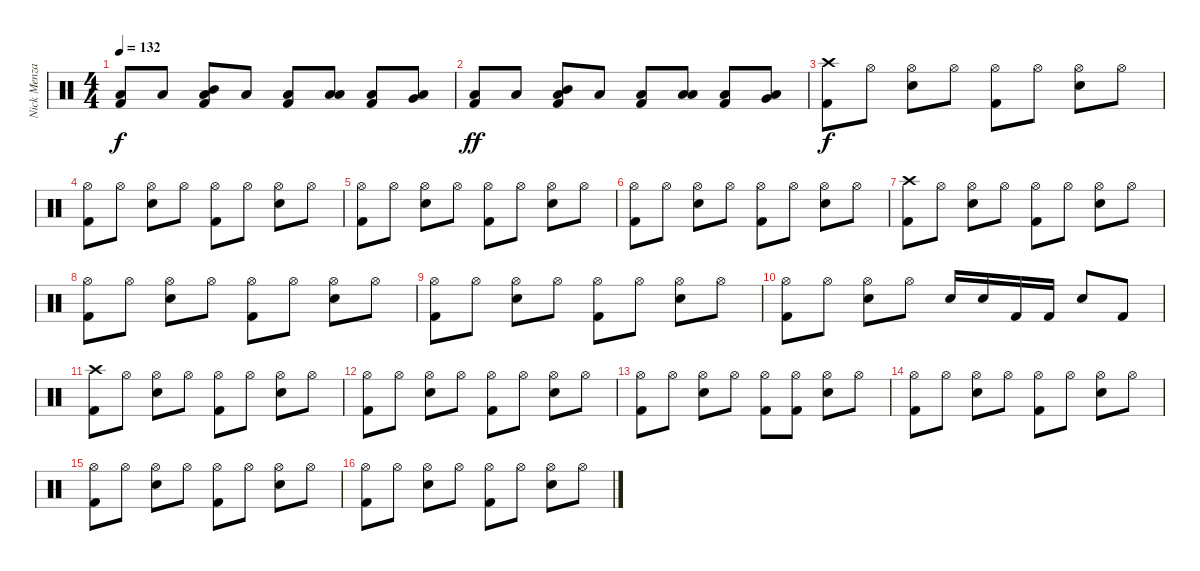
\track ("Nick Menza (Drums)" "Nick Menza") {instrument percussion}
\staff {score}
\articulation defaults
\ts (4 4)
\tempo 132
\clef neutral
\ks c
("Low Floor Tom (hit)" "Kick (hit) 2").8{dy f} "Low Floor Tom (hit)".8 ("Low Floor Tom (hit)" "Mid Tom (hit)" "Kick (hit) 2").8 "Low Floor Tom (hit)".8 ("Low Floor Tom (hit)" "Kick (hit) 2").8 ("Low Floor Tom (hit)" "Low Tom (hit)").8 ("Low Floor Tom (hit)" "Kick (hit) 2").8 ("Low Floor Tom (hit)" "Very Low Tom (hit)").8 |
("Low Floor Tom (hit)" "Kick (hit) 2").8{dy ff} "Low Floor Tom (hit)".8 ("Low Floor Tom (hit)" "Mid Tom (hit)" "Kick (hit) 2").8 "Low Floor Tom (hit)".8 ("Low Floor Tom (hit)" "Kick (hit) 2").8 ("Low Floor Tom (hit)" "Low Tom (hit)").8 ("Low Floor Tom (hit)" "Kick (hit) 2").8 ("Low Floor Tom (hit)" "Very Low Tom (hit)").8 |
("Crash high (hit)" "Kick (hit) 2").8{dy f} "Hi-Hat (open)".8 ("Hi-Hat (open)" "Snare (hit) 2").8 "Hi-Hat (open)".8 ("Hi-Hat (open)" "Kick (hit) 2").8 "Hi-Hat (open)".8 ("Hi-Hat (open)" "Snare (hit) 2").8 "Hi-Hat (open)".8 |
("Hi-Hat (open)" "Kick (hit) 2").8 "Hi-Hat (open)".8 ("Hi-Hat (open)" "Snare (hit) 2").8 "Hi-Hat (open)".8 ("Hi-Hat (open)" "Kick (hit) 2").8 "Hi-Hat (open)".8 ("Hi-Hat (open)" "Snare (hit) 2").8 "Hi-Hat (open)".8 |
("Hi-Hat (open)" "Kick (hit) 2").8 "Hi-Hat (open)".8 ("Hi-Hat (open)" "Snare (hit) 2").8 "Hi-Hat (open)".8 ("Hi-Hat (open)" "Kick (hit) 2").8 "Hi-Hat (open)".8 ("Hi-Hat (open)" "Snare (hit) 2").8 "Hi-Hat (open)".8 |
("Hi-Hat (open)" "Kick (hit) 2").8 "Hi-Hat (open)".8 ("Hi-Hat (open)" "Snare (hit) 2").8 "Hi-Hat (open)".8 ("Hi-Hat (open)" "Kick (hit) 2").8 "Hi-Hat (open)".8 ("Hi-Hat (open)" "Snare (hit) 2").8 "Hi-Hat (open)".8 |
("Crash high (hit)" "Kick (hit) 2").8 "Hi-Hat (open)".8 ("Hi-Hat (open)" "Snare (hit) 2").8 "Hi-Hat (open)".8 ("Hi-Hat (open)" "Kick (hit) 2").8 "Hi-Hat (open)".8 ("Hi-Hat (open)" "Snare (hit) 2").8 "Hi-Hat (open)".8 |
("Hi-Hat (open)" "Kick (hit) 2").8 "Hi-Hat (open)".8 ("Hi-Hat (open)" "Snare (hit) 2").8 "Hi-Hat (open)".8 ("Hi-Hat (open)" "Kick (hit) 2").8 "Hi-Hat (open)".8 ("Hi-Hat (open)" "Snare (hit) 2").8 "Hi-Hat (open)".8 |
("Hi-Hat (open)" "Kick (hit) 2").8 "Hi-Hat (open)".8 ("Hi-Hat (open)" "Snare (hit) 2").8 "Hi-Hat (open)".8 ("Hi-Hat (open)" "Kick (hit) 2").8 "Hi-Hat (open)".8 ("Hi-Hat (open)" "Snare (hit) 2").8 "Hi-Hat (open)".8 |
("Hi-Hat (open)" "Kick (hit) 2").8 "Hi-Hat (open)".8 ("Hi-Hat (open)" "Snare (hit) 2").8 "Hi-Hat (open)".8 "Snare (hit) 2".16 "Snare (hit) 2".16 "Kick (hit) 2".16 "Kick (hit) 2".16 "Snare (hit) 2".8 "Kick (hit) 2".8 |
("Crash high (hit)" "Kick (hit) 2").8 "Hi-Hat (open)".8 ("Hi-Hat (open)" "Snare (hit) 2").8 "Hi-Hat (open)".8 ("Hi-Hat (open)" "Kick (hit) 2").8 "Hi-Hat (open)".8 ("Hi-Hat (open)" "Snare (hit) 2").8 "Hi-Hat (open)".8 |
("Hi-Hat (open)" "Kick (hit) 2").8 "Hi-Hat (open)".8 ("Hi-Hat (open)" "Snare (hit) 2").8 "Hi-Hat (open)".8 ("Hi-Hat (open)" "Kick (hit) 2").8 "Hi-Hat (open)".8 ("Hi-Hat (open)" "Snare (hit) 2").8 "Hi-Hat (open)".8 |
("Hi-Hat (open)" "Kick (hit) 2").8 "Hi-Hat (open)".8 ("Hi-Hat (open)" "Snare (hit) 2").8 "Hi-Hat (open)".8 ("Hi-Hat (open)" "Kick (hit) 2").8 ("Hi-Hat (open)" "Kick (hit) 2").8 ("Hi-Hat (open)" "Snare (hit) 2").8 "Hi-Hat (open)".8 |
("Hi-Hat (open)" "Kick (hit) 2").8 "Hi-Hat (open)".8 ("Hi-Hat (open)" "Snare (hit) 2").8 "Hi-Hat (open)".8 ("Hi-Hat (open)" "Kick (hit) 2").8 "Hi-Hat (open)".8 ("Hi-Hat (open)" "Snare (hit) 2").8 "Hi-Hat (open)".8 |
("Hi-Hat (open)" "Kick (hit) 2").8 "Hi-Hat (open)".8 ("Hi-Hat (open)" "Snare (hit) 2").8 "Hi-Hat (open)".8 ("Hi-Hat (open)" "Kick (hit) 2").8 "Hi-Hat (open)".8 ("Hi-Hat (open)" "Snare (hit) 2").8 "Hi-Hat (open)".8 |
("Hi-Hat (open)" "Kick (hit) 2").8 "Hi-Hat (open)".8 ("Hi-Hat (open)" "Snare (hit) 2").8 "Hi-Hat (open)".8 ("Hi-Hat (open)" "Kick (hit) 2").8 "Hi-Hat (open)".8 ("Hi-Hat (open)" "Snare (hit) 2").8 "Hi-Hat (open)".8
